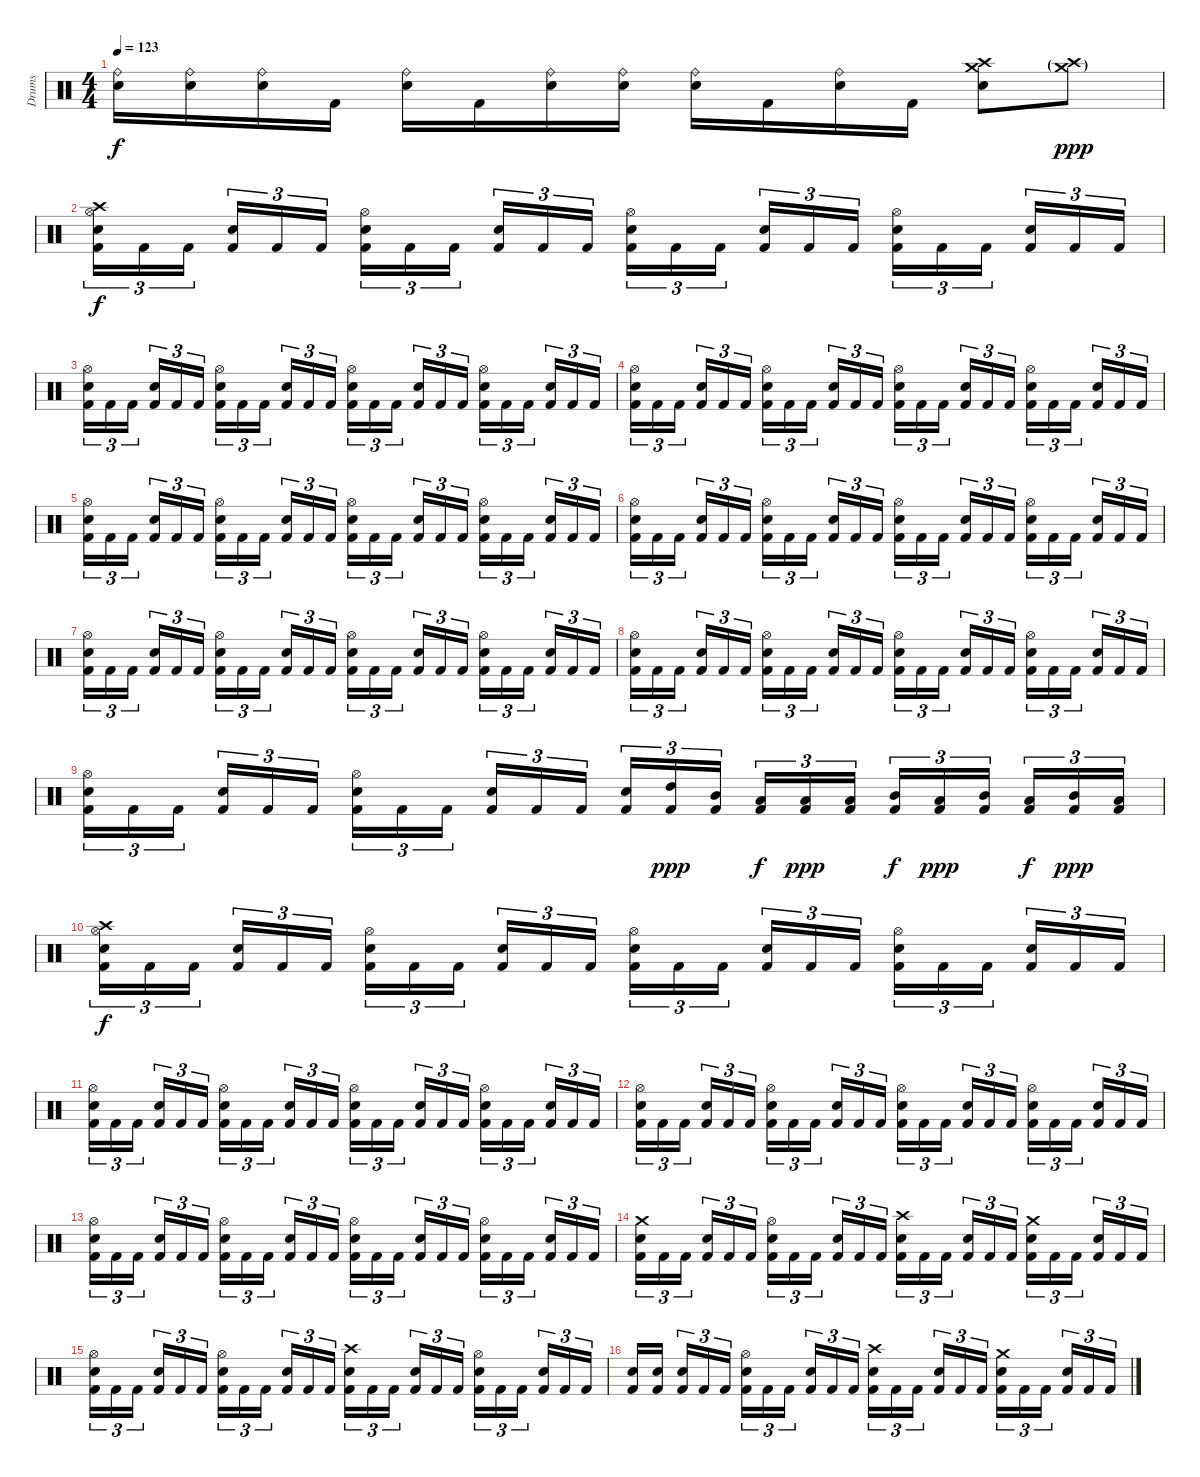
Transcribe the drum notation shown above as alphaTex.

\track ("Drums" "Drums") {instrument percussion}
\staff {score}
\articulation defaults
\ts (4 4)
\tempo 123
\clef neutral
\ks c
("Ride (bell)" "Snare (hit) 2").16{dy f} ("Ride (bell)" "Snare (hit) 2").16 ("Ride (bell)" "Snare (hit) 2").16 "Kick (hit) 2".16 ("Ride (bell)" "Snare (hit) 2").16 "Kick (hit) 2".16 ("Ride (bell)" "Snare (hit) 2").16 ("Ride (bell)" "Snare (hit) 2").16 ("Ride (bell)" "Snare (hit) 2").16 "Kick (hit) 2".16 ("Ride (bell)" "Snare (hit) 2").16 "Kick (hit) 2".16 ("Crash medium (hit)" "Crash high (hit)" "Snare (hit) 2").8 ("Crash medium (hit)"{g} "Crash high (hit)"{g}).8{dy ppp} |
("Crash high (hit)" "Hi-Hat (open)" "Snare (hit) 2" "Kick (hit) 2").16{tu (3 2) dy f} "Kick (hit) 2".16{tu (3 2)} "Kick (hit) 2".16{tu (3 2) beam splitsecondary} ("Snare (hit) 2" "Kick (hit) 2").16{tu (3 2)} "Kick (hit) 2".16{tu (3 2)} "Kick (hit) 2".16{tu (3 2)} ("Hi-Hat (open)" "Snare (hit) 2" "Kick (hit) 2").16{tu (3 2)} "Kick (hit) 2".16{tu (3 2)} "Kick (hit) 2".16{tu (3 2) beam splitsecondary} ("Snare (hit) 2" "Kick (hit) 2").16{tu (3 2)} "Kick (hit) 2".16{tu (3 2)} "Kick (hit) 2".16{tu (3 2)} ("Hi-Hat (open)" "Snare (hit) 2" "Kick (hit) 2").16{tu (3 2)} "Kick (hit) 2".16{tu (3 2)} "Kick (hit) 2".16{tu (3 2) beam splitsecondary} ("Snare (hit) 2" "Kick (hit) 2").16{tu (3 2)} "Kick (hit) 2".16{tu (3 2)} "Kick (hit) 2".16{tu (3 2)} ("Hi-Hat (open)" "Snare (hit) 2" "Kick (hit) 2").16{tu (3 2)} "Kick (hit) 2".16{tu (3 2)} "Kick (hit) 2".16{tu (3 2) beam splitsecondary} ("Snare (hit) 2" "Kick (hit) 2").16{tu (3 2)} "Kick (hit) 2".16{tu (3 2)} "Kick (hit) 2".16{tu (3 2)} |
("Hi-Hat (open)" "Snare (hit) 2" "Kick (hit) 2").16{tu (3 2)} "Kick (hit) 2".16{tu (3 2)} "Kick (hit) 2".16{tu (3 2) beam splitsecondary} ("Snare (hit) 2" "Kick (hit) 2").16{tu (3 2)} "Kick (hit) 2".16{tu (3 2)} "Kick (hit) 2".16{tu (3 2)} ("Hi-Hat (open)" "Snare (hit) 2" "Kick (hit) 2").16{tu (3 2)} "Kick (hit) 2".16{tu (3 2)} "Kick (hit) 2".16{tu (3 2) beam splitsecondary} ("Snare (hit) 2" "Kick (hit) 2").16{tu (3 2)} "Kick (hit) 2".16{tu (3 2)} "Kick (hit) 2".16{tu (3 2)} ("Hi-Hat (open)" "Snare (hit) 2" "Kick (hit) 2").16{tu (3 2)} "Kick (hit) 2".16{tu (3 2)} "Kick (hit) 2".16{tu (3 2) beam splitsecondary} ("Snare (hit) 2" "Kick (hit) 2").16{tu (3 2)} "Kick (hit) 2".16{tu (3 2)} "Kick (hit) 2".16{tu (3 2)} ("Hi-Hat (open)" "Snare (hit) 2" "Kick (hit) 2").16{tu (3 2)} "Kick (hit) 2".16{tu (3 2)} "Kick (hit) 2".16{tu (3 2) beam splitsecondary} ("Snare (hit) 2" "Kick (hit) 2").16{tu (3 2)} "Kick (hit) 2".16{tu (3 2)} "Kick (hit) 2".16{tu (3 2)} |
("Hi-Hat (open)" "Snare (hit) 2" "Kick (hit) 2").16{tu (3 2)} "Kick (hit) 2".16{tu (3 2)} "Kick (hit) 2".16{tu (3 2) beam splitsecondary} ("Snare (hit) 2" "Kick (hit) 2").16{tu (3 2)} "Kick (hit) 2".16{tu (3 2)} "Kick (hit) 2".16{tu (3 2)} ("Hi-Hat (open)" "Snare (hit) 2" "Kick (hit) 2").16{tu (3 2)} "Kick (hit) 2".16{tu (3 2)} "Kick (hit) 2".16{tu (3 2) beam splitsecondary} ("Snare (hit) 2" "Kick (hit) 2").16{tu (3 2)} "Kick (hit) 2".16{tu (3 2)} "Kick (hit) 2".16{tu (3 2)} ("Hi-Hat (open)" "Snare (hit) 2" "Kick (hit) 2").16{tu (3 2)} "Kick (hit) 2".16{tu (3 2)} "Kick (hit) 2".16{tu (3 2) beam splitsecondary} ("Snare (hit) 2" "Kick (hit) 2").16{tu (3 2)} "Kick (hit) 2".16{tu (3 2)} "Kick (hit) 2".16{tu (3 2)} ("Hi-Hat (open)" "Snare (hit) 2" "Kick (hit) 2").16{tu (3 2)} "Kick (hit) 2".16{tu (3 2)} "Kick (hit) 2".16{tu (3 2) beam splitsecondary} ("Snare (hit) 2" "Kick (hit) 2").16{tu (3 2)} "Kick (hit) 2".16{tu (3 2)} "Kick (hit) 2".16{tu (3 2)} |
("Hi-Hat (open)" "Snare (hit) 2" "Kick (hit) 2").16{tu (3 2)} "Kick (hit) 2".16{tu (3 2)} "Kick (hit) 2".16{tu (3 2) beam splitsecondary} ("Snare (hit) 2" "Kick (hit) 2").16{tu (3 2)} "Kick (hit) 2".16{tu (3 2)} "Kick (hit) 2".16{tu (3 2)} ("Hi-Hat (open)" "Snare (hit) 2" "Kick (hit) 2").16{tu (3 2)} "Kick (hit) 2".16{tu (3 2)} "Kick (hit) 2".16{tu (3 2) beam splitsecondary} ("Snare (hit) 2" "Kick (hit) 2").16{tu (3 2)} "Kick (hit) 2".16{tu (3 2)} "Kick (hit) 2".16{tu (3 2)} ("Hi-Hat (open)" "Snare (hit) 2" "Kick (hit) 2").16{tu (3 2)} "Kick (hit) 2".16{tu (3 2)} "Kick (hit) 2".16{tu (3 2) beam splitsecondary} ("Snare (hit) 2" "Kick (hit) 2").16{tu (3 2)} "Kick (hit) 2".16{tu (3 2)} "Kick (hit) 2".16{tu (3 2)} ("Hi-Hat (open)" "Snare (hit) 2" "Kick (hit) 2").16{tu (3 2)} "Kick (hit) 2".16{tu (3 2)} "Kick (hit) 2".16{tu (3 2) beam splitsecondary} ("Snare (hit) 2" "Kick (hit) 2").16{tu (3 2)} "Kick (hit) 2".16{tu (3 2)} "Kick (hit) 2".16{tu (3 2)} |
("Hi-Hat (open)" "Snare (hit) 2" "Kick (hit) 2").16{tu (3 2)} "Kick (hit) 2".16{tu (3 2)} "Kick (hit) 2".16{tu (3 2) beam splitsecondary} ("Snare (hit) 2" "Kick (hit) 2").16{tu (3 2)} "Kick (hit) 2".16{tu (3 2)} "Kick (hit) 2".16{tu (3 2)} ("Hi-Hat (open)" "Snare (hit) 2" "Kick (hit) 2").16{tu (3 2)} "Kick (hit) 2".16{tu (3 2)} "Kick (hit) 2".16{tu (3 2) beam splitsecondary} ("Snare (hit) 2" "Kick (hit) 2").16{tu (3 2)} "Kick (hit) 2".16{tu (3 2)} "Kick (hit) 2".16{tu (3 2)} ("Hi-Hat (open)" "Snare (hit) 2" "Kick (hit) 2").16{tu (3 2)} "Kick (hit) 2".16{tu (3 2)} "Kick (hit) 2".16{tu (3 2) beam splitsecondary} ("Snare (hit) 2" "Kick (hit) 2").16{tu (3 2)} "Kick (hit) 2".16{tu (3 2)} "Kick (hit) 2".16{tu (3 2)} ("Hi-Hat (open)" "Snare (hit) 2" "Kick (hit) 2").16{tu (3 2)} "Kick (hit) 2".16{tu (3 2)} "Kick (hit) 2".16{tu (3 2) beam splitsecondary} ("Snare (hit) 2" "Kick (hit) 2").16{tu (3 2)} "Kick (hit) 2".16{tu (3 2)} "Kick (hit) 2".16{tu (3 2)} |
("Hi-Hat (open)" "Snare (hit) 2" "Kick (hit) 2").16{tu (3 2)} "Kick (hit) 2".16{tu (3 2)} "Kick (hit) 2".16{tu (3 2) beam splitsecondary} ("Snare (hit) 2" "Kick (hit) 2").16{tu (3 2)} "Kick (hit) 2".16{tu (3 2)} "Kick (hit) 2".16{tu (3 2)} ("Hi-Hat (open)" "Snare (hit) 2" "Kick (hit) 2").16{tu (3 2)} "Kick (hit) 2".16{tu (3 2)} "Kick (hit) 2".16{tu (3 2) beam splitsecondary} ("Snare (hit) 2" "Kick (hit) 2").16{tu (3 2)} "Kick (hit) 2".16{tu (3 2)} "Kick (hit) 2".16{tu (3 2)} ("Hi-Hat (open)" "Snare (hit) 2" "Kick (hit) 2").16{tu (3 2)} "Kick (hit) 2".16{tu (3 2)} "Kick (hit) 2".16{tu (3 2) beam splitsecondary} ("Snare (hit) 2" "Kick (hit) 2").16{tu (3 2)} "Kick (hit) 2".16{tu (3 2)} "Kick (hit) 2".16{tu (3 2)} ("Hi-Hat (open)" "Snare (hit) 2" "Kick (hit) 2").16{tu (3 2)} "Kick (hit) 2".16{tu (3 2)} "Kick (hit) 2".16{tu (3 2) beam splitsecondary} ("Snare (hit) 2" "Kick (hit) 2").16{tu (3 2)} "Kick (hit) 2".16{tu (3 2)} "Kick (hit) 2".16{tu (3 2)} |
("Hi-Hat (open)" "Snare (hit) 2" "Kick (hit) 2").16{tu (3 2)} "Kick (hit) 2".16{tu (3 2)} "Kick (hit) 2".16{tu (3 2) beam splitsecondary} ("Snare (hit) 2" "Kick (hit) 2").16{tu (3 2)} "Kick (hit) 2".16{tu (3 2)} "Kick (hit) 2".16{tu (3 2)} ("Hi-Hat (open)" "Snare (hit) 2" "Kick (hit) 2").16{tu (3 2)} "Kick (hit) 2".16{tu (3 2)} "Kick (hit) 2".16{tu (3 2) beam splitsecondary} ("Snare (hit) 2" "Kick (hit) 2").16{tu (3 2)} "Kick (hit) 2".16{tu (3 2)} "Kick (hit) 2".16{tu (3 2)} ("Hi-Hat (open)" "Snare (hit) 2" "Kick (hit) 2").16{tu (3 2)} "Kick (hit) 2".16{tu (3 2)} "Kick (hit) 2".16{tu (3 2) beam splitsecondary} ("Snare (hit) 2" "Kick (hit) 2").16{tu (3 2)} "Kick (hit) 2".16{tu (3 2)} "Kick (hit) 2".16{tu (3 2)} ("Hi-Hat (open)" "Snare (hit) 2" "Kick (hit) 2").16{tu (3 2)} "Kick (hit) 2".16{tu (3 2)} "Kick (hit) 2".16{tu (3 2) beam splitsecondary} ("Snare (hit) 2" "Kick (hit) 2").16{tu (3 2)} "Kick (hit) 2".16{tu (3 2)} "Kick (hit) 2".16{tu (3 2)} |
("Hi-Hat (open)" "Snare (hit) 2" "Kick (hit) 2").16{tu (3 2)} "Kick (hit) 2".16{tu (3 2)} "Kick (hit) 2".16{tu (3 2) beam splitsecondary} ("Snare (hit) 2" "Kick (hit) 2").16{tu (3 2)} "Kick (hit) 2".16{tu (3 2)} "Kick (hit) 2".16{tu (3 2)} ("Hi-Hat (open)" "Snare (hit) 2" "Kick (hit) 2").16{tu (3 2)} "Kick (hit) 2".16{tu (3 2)} "Kick (hit) 2".16{tu (3 2) beam splitsecondary} ("Snare (hit) 2" "Kick (hit) 2").16{tu (3 2)} "Kick (hit) 2".16{tu (3 2)} "Kick (hit) 2".16{tu (3 2)} ("Snare (hit) 2" "Kick (hit) 2").16{tu (3 2)} ("High Tom (hit)" "Kick (hit) 2").16{tu (3 2) dy ppp} ("Mid Tom (hit)" "Kick (hit) 2").16{tu (3 2) beam splitsecondary} ("Low Tom (hit)" "Kick (hit) 2").16{tu (3 2) dy f} ("Low Floor Tom (hit)" "Kick (hit) 2").16{tu (3 2) dy ppp} ("Low Tom (hit)" "Kick (hit) 2").16{tu (3 2)} ("Mid Tom (hit)" "Kick (hit) 2").16{tu (3 2) dy f} ("Low Tom (hit)" "Kick (hit) 2").16{tu (3 2) dy ppp} ("Mid Tom (hit)" "Kick (hit) 2").16{tu (3 2) beam splitsecondary} ("Low Tom (hit)" "Kick (hit) 2").16{tu (3 2) dy f} ("Mid Tom (hit)" "Kick (hit) 2").16{tu (3 2) dy ppp} ("Low Tom (hit)" "Kick (hit) 2").16{tu (3 2)} |
("Crash high (hit)" "Hi-Hat (open)" "Snare (hit) 2" "Kick (hit) 2").16{tu (3 2) dy f} "Kick (hit) 2".16{tu (3 2)} "Kick (hit) 2".16{tu (3 2) beam splitsecondary} ("Snare (hit) 2" "Kick (hit) 2").16{tu (3 2)} "Kick (hit) 2".16{tu (3 2)} "Kick (hit) 2".16{tu (3 2)} ("Hi-Hat (open)" "Snare (hit) 2" "Kick (hit) 2").16{tu (3 2)} "Kick (hit) 2".16{tu (3 2)} "Kick (hit) 2".16{tu (3 2) beam splitsecondary} ("Snare (hit) 2" "Kick (hit) 2").16{tu (3 2)} "Kick (hit) 2".16{tu (3 2)} "Kick (hit) 2".16{tu (3 2)} ("Hi-Hat (open)" "Snare (hit) 2" "Kick (hit) 2").16{tu (3 2)} "Kick (hit) 2".16{tu (3 2)} "Kick (hit) 2".16{tu (3 2) beam splitsecondary} ("Snare (hit) 2" "Kick (hit) 2").16{tu (3 2)} "Kick (hit) 2".16{tu (3 2)} "Kick (hit) 2".16{tu (3 2)} ("Hi-Hat (open)" "Snare (hit) 2" "Kick (hit) 2").16{tu (3 2)} "Kick (hit) 2".16{tu (3 2)} "Kick (hit) 2".16{tu (3 2) beam splitsecondary} ("Snare (hit) 2" "Kick (hit) 2").16{tu (3 2)} "Kick (hit) 2".16{tu (3 2)} "Kick (hit) 2".16{tu (3 2)} |
("Hi-Hat (open)" "Snare (hit) 2" "Kick (hit) 2").16{tu (3 2)} "Kick (hit) 2".16{tu (3 2)} "Kick (hit) 2".16{tu (3 2) beam splitsecondary} ("Snare (hit) 2" "Kick (hit) 2").16{tu (3 2)} "Kick (hit) 2".16{tu (3 2)} "Kick (hit) 2".16{tu (3 2)} ("Hi-Hat (open)" "Snare (hit) 2" "Kick (hit) 2").16{tu (3 2)} "Kick (hit) 2".16{tu (3 2)} "Kick (hit) 2".16{tu (3 2) beam splitsecondary} ("Snare (hit) 2" "Kick (hit) 2").16{tu (3 2)} "Kick (hit) 2".16{tu (3 2)} "Kick (hit) 2".16{tu (3 2)} ("Hi-Hat (open)" "Snare (hit) 2" "Kick (hit) 2").16{tu (3 2)} "Kick (hit) 2".16{tu (3 2)} "Kick (hit) 2".16{tu (3 2) beam splitsecondary} ("Snare (hit) 2" "Kick (hit) 2").16{tu (3 2)} "Kick (hit) 2".16{tu (3 2)} "Kick (hit) 2".16{tu (3 2)} ("Hi-Hat (open)" "Snare (hit) 2" "Kick (hit) 2").16{tu (3 2)} "Kick (hit) 2".16{tu (3 2)} "Kick (hit) 2".16{tu (3 2) beam splitsecondary} ("Snare (hit) 2" "Kick (hit) 2").16{tu (3 2)} "Kick (hit) 2".16{tu (3 2)} "Kick (hit) 2".16{tu (3 2)} |
("Hi-Hat (open)" "Snare (hit) 2" "Kick (hit) 2").16{tu (3 2)} "Kick (hit) 2".16{tu (3 2)} "Kick (hit) 2".16{tu (3 2) beam splitsecondary} ("Snare (hit) 2" "Kick (hit) 2").16{tu (3 2)} "Kick (hit) 2".16{tu (3 2)} "Kick (hit) 2".16{tu (3 2)} ("Hi-Hat (open)" "Snare (hit) 2" "Kick (hit) 2").16{tu (3 2)} "Kick (hit) 2".16{tu (3 2)} "Kick (hit) 2".16{tu (3 2) beam splitsecondary} ("Snare (hit) 2" "Kick (hit) 2").16{tu (3 2)} "Kick (hit) 2".16{tu (3 2)} "Kick (hit) 2".16{tu (3 2)} ("Hi-Hat (open)" "Snare (hit) 2" "Kick (hit) 2").16{tu (3 2)} "Kick (hit) 2".16{tu (3 2)} "Kick (hit) 2".16{tu (3 2) beam splitsecondary} ("Snare (hit) 2" "Kick (hit) 2").16{tu (3 2)} "Kick (hit) 2".16{tu (3 2)} "Kick (hit) 2".16{tu (3 2)} ("Hi-Hat (open)" "Snare (hit) 2" "Kick (hit) 2").16{tu (3 2)} "Kick (hit) 2".16{tu (3 2)} "Kick (hit) 2".16{tu (3 2) beam splitsecondary} ("Snare (hit) 2" "Kick (hit) 2").16{tu (3 2)} "Kick (hit) 2".16{tu (3 2)} "Kick (hit) 2".16{tu (3 2)} |
("Hi-Hat (open)" "Snare (hit) 2" "Kick (hit) 2").16{tu (3 2)} "Kick (hit) 2".16{tu (3 2)} "Kick (hit) 2".16{tu (3 2) beam splitsecondary} ("Snare (hit) 2" "Kick (hit) 2").16{tu (3 2)} "Kick (hit) 2".16{tu (3 2)} "Kick (hit) 2".16{tu (3 2)} ("Hi-Hat (open)" "Snare (hit) 2" "Kick (hit) 2").16{tu (3 2)} "Kick (hit) 2".16{tu (3 2)} "Kick (hit) 2".16{tu (3 2) beam splitsecondary} ("Snare (hit) 2" "Kick (hit) 2").16{tu (3 2)} "Kick (hit) 2".16{tu (3 2)} "Kick (hit) 2".16{tu (3 2)} ("Hi-Hat (open)" "Snare (hit) 2" "Kick (hit) 2").16{tu (3 2)} "Kick (hit) 2".16{tu (3 2)} "Kick (hit) 2".16{tu (3 2) beam splitsecondary} ("Snare (hit) 2" "Kick (hit) 2").16{tu (3 2)} "Kick (hit) 2".16{tu (3 2)} "Kick (hit) 2".16{tu (3 2)} ("Hi-Hat (open)" "Snare (hit) 2" "Kick (hit) 2").16{tu (3 2)} "Kick (hit) 2".16{tu (3 2)} "Kick (hit) 2".16{tu (3 2) beam splitsecondary} ("Snare (hit) 2" "Kick (hit) 2").16{tu (3 2)} "Kick (hit) 2".16{tu (3 2)} "Kick (hit) 2".16{tu (3 2)} |
("Crash medium (hit)" "Snare (hit) 2" "Kick (hit) 2").16{tu (3 2)} "Kick (hit) 2".16{tu (3 2)} "Kick (hit) 2".16{tu (3 2) beam splitsecondary} ("Snare (hit) 2" "Kick (hit) 2").16{tu (3 2)} "Kick (hit) 2".16{tu (3 2)} "Kick (hit) 2".16{tu (3 2)} ("Hi-Hat (open)" "Snare (hit) 2" "Kick (hit) 2").16{tu (3 2)} "Kick (hit) 2".16{tu (3 2)} "Kick (hit) 2".16{tu (3 2) beam splitsecondary} ("Snare (hit) 2" "Kick (hit) 2").16{tu (3 2)} "Kick (hit) 2".16{tu (3 2)} "Kick (hit) 2".16{tu (3 2)} ("Crash high (hit)" "Snare (hit) 2" "Kick (hit) 2").16{tu (3 2)} "Kick (hit) 2".16{tu (3 2)} "Kick (hit) 2".16{tu (3 2) beam splitsecondary} ("Snare (hit) 2" "Kick (hit) 2").16{tu (3 2)} "Kick (hit) 2".16{tu (3 2)} "Kick (hit) 2".16{tu (3 2)} ("Crash medium (hit)" "Snare (hit) 2" "Kick (hit) 2").16{tu (3 2)} "Kick (hit) 2".16{tu (3 2)} "Kick (hit) 2".16{tu (3 2) beam splitsecondary} ("Snare (hit) 2" "Kick (hit) 2").16{tu (3 2)} "Kick (hit) 2".16{tu (3 2)} "Kick (hit) 2".16{tu (3 2)} |
("Hi-Hat (open)" "Snare (hit) 2" "Kick (hit) 2").16{tu (3 2)} "Kick (hit) 2".16{tu (3 2)} "Kick (hit) 2".16{tu (3 2) beam splitsecondary} ("Snare (hit) 2" "Kick (hit) 2").16{tu (3 2)} "Kick (hit) 2".16{tu (3 2)} "Kick (hit) 2".16{tu (3 2)} ("Hi-Hat (open)" "Snare (hit) 2" "Kick (hit) 2").16{tu (3 2)} "Kick (hit) 2".16{tu (3 2)} "Kick (hit) 2".16{tu (3 2) beam splitsecondary} ("Snare (hit) 2" "Kick (hit) 2").16{tu (3 2)} "Kick (hit) 2".16{tu (3 2)} "Kick (hit) 2".16{tu (3 2)} ("Crash high (hit)" "Snare (hit) 2" "Kick (hit) 2").16{tu (3 2)} "Kick (hit) 2".16{tu (3 2)} "Kick (hit) 2".16{tu (3 2) beam splitsecondary} ("Snare (hit) 2" "Kick (hit) 2").16{tu (3 2)} "Kick (hit) 2".16{tu (3 2)} "Kick (hit) 2".16{tu (3 2)} ("Hi-Hat (open)" "Snare (hit) 2" "Kick (hit) 2").16{tu (3 2)} "Kick (hit) 2".16{tu (3 2)} "Kick (hit) 2".16{tu (3 2) beam splitsecondary} ("Snare (hit) 2" "Kick (hit) 2").16{tu (3 2)} "Kick (hit) 2".16{tu (3 2)} "Kick (hit) 2".16{tu (3 2)} |
("Snare (hit) 2" "Kick (hit) 2").16 ("Snare (hit) 2" "Kick (hit) 2").16{beam splitsecondary} ("Snare (hit) 2" "Kick (hit) 2").16{tu (3 2)} "Kick (hit) 2".16{tu (3 2)} "Kick (hit) 2".16{tu (3 2)} ("Hi-Hat (open)" "Snare (hit) 2" "Kick (hit) 2").16{tu (3 2)} "Kick (hit) 2".16{tu (3 2)} "Kick (hit) 2".16{tu (3 2) beam splitsecondary} ("Snare (hit) 2" "Kick (hit) 2").16{tu (3 2)} "Kick (hit) 2".16{tu (3 2)} "Kick (hit) 2".16{tu (3 2)} ("Crash high (hit)" "Snare (hit) 2" "Kick (hit) 2").16{tu (3 2)} "Kick (hit) 2".16{tu (3 2)} "Kick (hit) 2".16{tu (3 2) beam splitsecondary} ("Snare (hit) 2" "Kick (hit) 2").16{tu (3 2)} "Kick (hit) 2".16{tu (3 2)} "Kick (hit) 2".16{tu (3 2)} ("Crash medium (hit)" "Snare (hit) 2" "Kick (hit) 2").16{tu (3 2)} "Kick (hit) 2".16{tu (3 2)} "Kick (hit) 2".16{tu (3 2) beam splitsecondary} ("Snare (hit) 2" "Kick (hit) 2").16{tu (3 2)} "Kick (hit) 2".16{tu (3 2)} "Kick (hit) 2".16{tu (3 2)}
